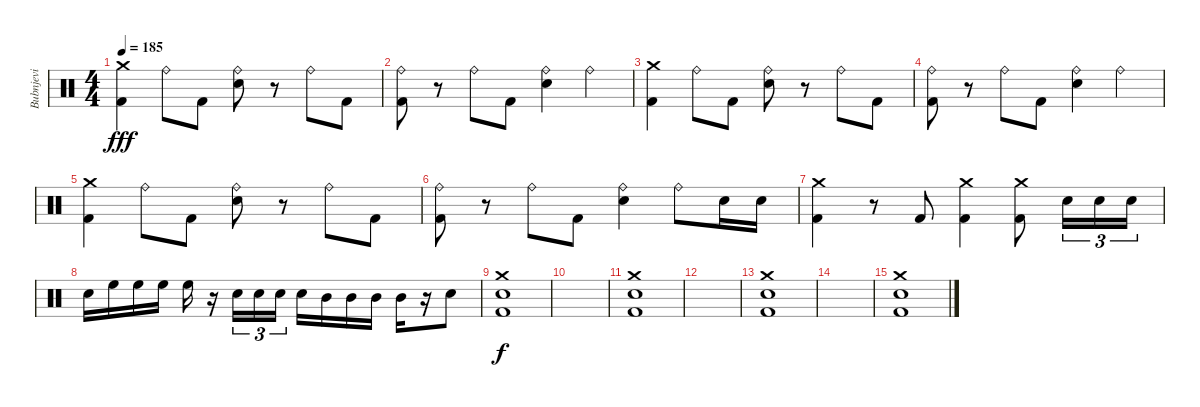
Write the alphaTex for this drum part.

\track ("Bubnjevi" "Bubnjevi") {instrument percussion}
\staff {score}
\articulation defaults
\ts (4 4)
\tempo 185
\clef neutral
\ks c
("Crash medium (hit)" "Kick (hit) 2").4{dy fff} "Ride (bell)".8 "Kick (hit) 2".8 ("Ride (bell)" "Snare (hit) 2").8 r.8 "Ride (bell)".8 "Kick (hit) 2".8 |
("Ride (bell)" "Kick (hit) 2").8 r.8 "Ride (bell)".8 "Kick (hit) 2".8 ("Ride (bell)" "Snare (hit) 2").4 "Ride (bell)".4 |
("Crash medium (hit)" "Kick (hit) 2").4 "Ride (bell)".8 "Kick (hit) 2".8 ("Ride (bell)" "Snare (hit) 2").8 r.8 "Ride (bell)".8 "Kick (hit) 2".8 |
("Ride (bell)" "Kick (hit) 2").8 r.8 "Ride (bell)".8 "Kick (hit) 2".8 ("Ride (bell)" "Snare (hit) 2").4 "Ride (bell)".4 |
("Crash medium (hit)" "Kick (hit) 2").4 "Ride (bell)".8 "Kick (hit) 2".8 ("Ride (bell)" "Snare (hit) 2").8 r.8 "Ride (bell)".8 "Kick (hit) 2".8 |
("Ride (bell)" "Kick (hit) 2").8 r.8 "Ride (bell)".8 "Kick (hit) 2".8 ("Ride (bell)" "Snare (hit) 2").4 "Ride (bell)".8 "Snare (hit) 2".16 "Snare (hit) 2".16 |
("Crash medium (hit)" "Kick (hit) 2").4 r.8 "Kick (hit) 2".8 ("Crash medium (hit)" "Kick (hit) 2").4 ("Crash medium (hit)" "Kick (hit) 2").8 "Snare (hit) 2".16{tu (3 2)} "Snare (hit) 2".16{tu (3 2)} "Snare (hit) 2".16{tu (3 2)} |
"Snare (hit) 2".16 "High Floor Tom (hit)".16 "High Floor Tom (hit)".16 "High Floor Tom (hit)".16 "High Floor Tom (hit)".16 r.16 "Snare (hit) 2".16{tu (3 2)} "Snare (hit) 2".16{tu (3 2)} "Snare (hit) 2".16{tu (3 2)} "Snare (hit) 2".16 "Mid Tom (hit)".16 "Mid Tom (hit)".16 "Mid Tom (hit)".16 "Mid Tom (hit)".16 r.16 "Snare (hit) 2".8 |
("Crash medium (hit)" "Snare (hit) 2" "Kick (hit) 2").1{dy f} |
|
("Crash medium (hit)" "Snare (hit) 2" "Kick (hit) 2").1 |
|
("Crash medium (hit)" "Snare (hit) 2" "Kick (hit) 2").1 |
|
("Crash medium (hit)" "Snare (hit) 2" "Kick (hit) 2").1
